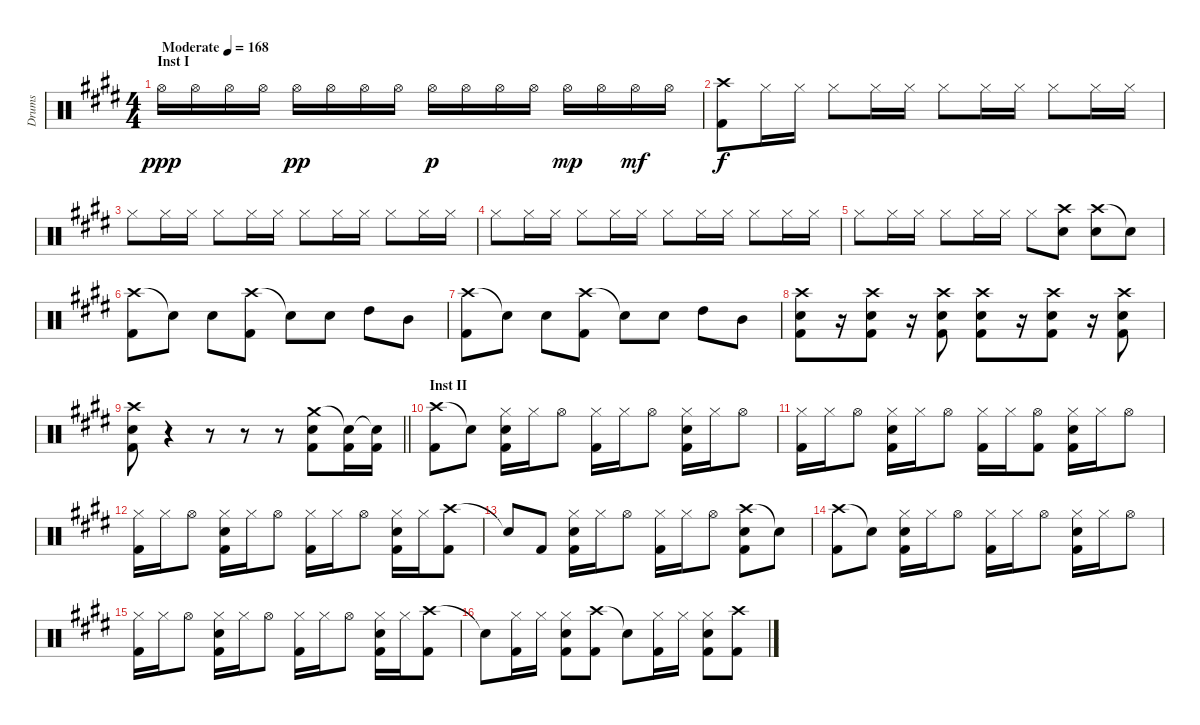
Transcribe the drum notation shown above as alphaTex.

\track ("Drums" "Drums") {instrument percussion}
\staff {score}
\articulation defaults
\ts (4 4)
\section ("" "Inst I")
\tempo (168 "Moderate")
\clef neutral
\ks e "Hi-Hat (open)".16{dy ppp} "Hi-Hat (open)".16 "Hi-Hat (open)".16 "Hi-Hat (open)".16 "Hi-Hat (open)".16{dy pp} "Hi-Hat (open)".16 "Hi-Hat (open)".16 "Hi-Hat (open)".16 "Hi-Hat (open)".16{dy p} "Hi-Hat (open)".16 "Hi-Hat (open)".16 "Hi-Hat (open)".16 "Hi-Hat (open)".16{dy mp} "Hi-Hat (open)".16 "Hi-Hat (open)".16{dy mf} "Hi-Hat (open)".16
|
("Crash high (hit)" "Kick (hit) 2").8{dy f} "Hi-Hat (closed)".16 "Hi-Hat (closed)".16 "Hi-Hat (closed)".8 "Hi-Hat (closed)".16 "Hi-Hat (closed)".16 "Hi-Hat (closed)".8 "Hi-Hat (closed)".16 "Hi-Hat (closed)".16 "Hi-Hat (closed)".8 "Hi-Hat (closed)".16 "Hi-Hat (closed)".16 |
"Hi-Hat (closed)".8 "Hi-Hat (closed)".16 "Hi-Hat (closed)".16 "Hi-Hat (closed)".8 "Hi-Hat (closed)".16 "Hi-Hat (closed)".16 "Hi-Hat (closed)".8 "Hi-Hat (closed)".16 "Hi-Hat (closed)".16 "Hi-Hat (closed)".8 "Hi-Hat (closed)".16 "Hi-Hat (closed)".16 |
"Hi-Hat (closed)".8 "Hi-Hat (closed)".16 "Hi-Hat (closed)".16 "Hi-Hat (closed)".8 "Hi-Hat (closed)".16 "Hi-Hat (closed)".16 "Hi-Hat (closed)".8 "Hi-Hat (closed)".16 "Hi-Hat (closed)".16 "Hi-Hat (closed)".8 "Hi-Hat (closed)".16 "Hi-Hat (closed)".16 |
"Hi-Hat (closed)".8 "Hi-Hat (closed)".16 "Hi-Hat (closed)".16 "Hi-Hat (closed)".8 "Hi-Hat (closed)".16 "Hi-Hat (closed)".16 "Hi-Hat (closed)".8 ("Crash high (hit)" "Snare (hit) 2").8 ("Crash high (hit)" "Snare (hit) 2").8 "Snare (hit)"{t}.8 |
("Crash high (hit)" "Kick (hit) 2").8 "Snare (hit)"{t}.8 "Snare (hit) 2".8 ("Crash high (hit)" "Kick (hit) 2").8 "Snare (hit)"{t}.8 "Snare (hit) 2".8 "High Tom (hit)".8 "Mid Tom (hit)".8 |
("Crash high (hit)" "Kick (hit) 2").8 "Snare (hit)"{t}.8 "Snare (hit) 2".8 ("Crash high (hit)" "Kick (hit) 2").8 "Snare (hit)"{t}.8 "Snare (hit) 2".8 "High Tom (hit)".8 "Mid Tom (hit)".8 |
("Crash high (hit)" "Snare (hit) 2" "Kick (hit) 2").8 r.16 ("Crash high (hit)" "Snare (hit) 2" "Kick (hit) 2").8 r.16 ("Crash high (hit)" "Snare (hit) 2" "Kick (hit) 2").8 ("Crash high (hit)" "Snare (hit) 2" "Kick (hit) 2").8 r.16 ("Crash high (hit)" "Snare (hit) 2" "Kick (hit) 2").8 r.16 ("Crash high (hit)" "Snare (hit) 2" "Kick (hit) 2").8 |
\barLineRight lightlight
("Crash high (hit)" "Snare (hit) 2" "Kick (hit) 2").8 r.4 r.8 r.8 r.8 ("Crash medium (hit)" "Snare (hit) 2" "Kick (hit) 2").8 ("Snare (hit)"{t} "Kick (hit) 2").16 ("Snare (hit)"{t} "Kick (hit) 2").16 |
\section ("" "Inst II")
("Crash high (hit)" "Kick (hit) 2").8 "Snare (hit)"{t}.8 ("Hi-Hat (closed)" "Snare (hit) 2" "Kick (hit) 2").16 "Hi-Hat (closed)".16 "Hi-Hat (open)".8 ("Hi-Hat (closed)" "Kick (hit) 2").16 "Hi-Hat (closed)".16 "Hi-Hat (open)".8 ("Hi-Hat (closed)" "Snare (hit) 2" "Kick (hit) 2").16 "Hi-Hat (closed)".16 "Hi-Hat (open)".8 |
("Hi-Hat (closed)" "Kick (hit) 2").16 "Hi-Hat (closed)".16 "Hi-Hat (open)".8 ("Hi-Hat (closed)" "Snare (hit) 2" "Kick (hit) 2").16 "Hi-Hat (closed)".16 "Hi-Hat (open)".8 ("Hi-Hat (closed)" "Kick (hit) 2").16 "Hi-Hat (closed)".16 ("Hi-Hat (open)" "Kick (hit) 2").8 ("Hi-Hat (closed)" "Snare (hit) 2" "Kick (hit) 2").16 "Hi-Hat (closed)".16 "Hi-Hat (open)".8 |
("Hi-Hat (closed)" "Kick (hit) 2").16 "Hi-Hat (closed)".16 "Hi-Hat (open)".8 ("Hi-Hat (closed)" "Snare (hit) 2" "Kick (hit) 2").16 "Hi-Hat (closed)".16 "Hi-Hat (open)".8 ("Hi-Hat (closed)" "Kick (hit) 2").16 "Hi-Hat (closed)".16 "Hi-Hat (open)".8 ("Hi-Hat (closed)" "Snare (hit) 2" "Kick (hit) 2").16 "Hi-Hat (closed)".16 ("Crash high (hit)" "Kick (hit) 2").8 |
"Snare (hit)"{t}.8 "Kick (hit) 2".8 ("Hi-Hat (closed)" "Snare (hit) 2" "Kick (hit) 2").16 "Hi-Hat (closed)".16 "Hi-Hat (open)".8 ("Hi-Hat (closed)" "Kick (hit) 2").16 "Hi-Hat (closed)".16 "Hi-Hat (open)".8 ("Crash high (hit)" "Snare (hit) 2" "Kick (hit) 2").8 "Snare (hit)"{t}.8 |
("Crash high (hit)" "Kick (hit) 2").8 "Snare (hit)"{t}.8 ("Hi-Hat (closed)" "Snare (hit) 2" "Kick (hit) 2").16 "Hi-Hat (closed)".16 "Hi-Hat (open)".8 ("Hi-Hat (closed)" "Kick (hit) 2").16 "Hi-Hat (closed)".16 "Hi-Hat (open)".8 ("Hi-Hat (closed)" "Snare (hit) 2" "Kick (hit) 2").16 "Hi-Hat (closed)".16 "Hi-Hat (open)".8 |
("Hi-Hat (closed)" "Kick (hit) 2").16 "Hi-Hat (closed)".16 "Hi-Hat (open)".8 ("Hi-Hat (closed)" "Snare (hit) 2" "Kick (hit) 2").16 "Hi-Hat (closed)".16 "Hi-Hat (open)".8 ("Hi-Hat (closed)" "Kick (hit) 2").16 "Hi-Hat (closed)".16 "Hi-Hat (open)".8 ("Hi-Hat (closed)" "Snare (hit) 2" "Kick (hit) 2").16 "Hi-Hat (closed)".16 ("Crash high (hit)" "Kick (hit) 2").8 |
"Snare (hit)"{t}.8 ("Hi-Hat (closed)" "Kick (hit) 2").16 "Hi-Hat (closed)".16 ("Hi-Hat (closed)" "Snare (hit) 2" "Kick (hit) 2").8 ("Crash high (hit)" "Kick (hit) 2").8 "Snare (hit)"{t}.8 ("Hi-Hat (closed)" "Kick (hit) 2").16 "Hi-Hat (closed)".16 ("Hi-Hat (closed)" "Snare (hit) 2" "Kick (hit) 2").8 ("Crash high (hit)" "Kick (hit) 2").8
